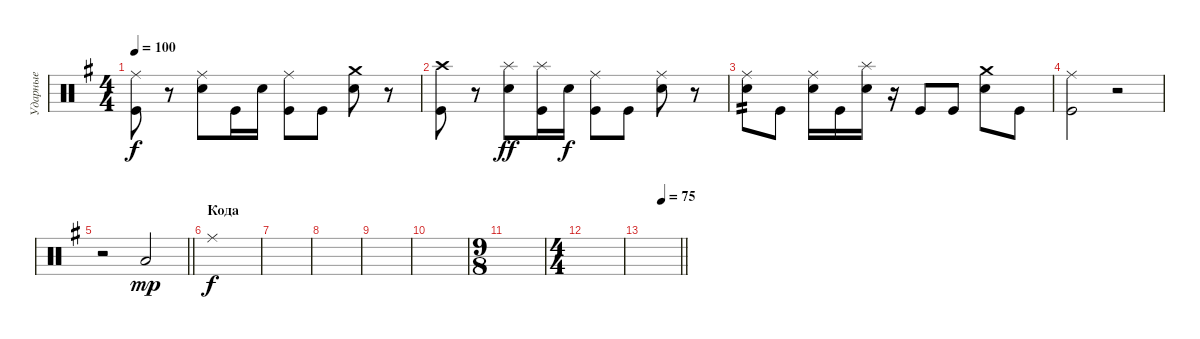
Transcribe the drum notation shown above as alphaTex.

\track ("Ударные" "Ударные") {instrument percussion}
\staff {score}
\articulation defaults
\ts (4 4)
\tempo 100
\clef neutral
\ks eminor
("Ride (middle)" "Kick (hit)").8{dy f} r.8 ("Ride (middle)" "Snare (hit) 2").8 "Kick (hit)".16 "Snare (hit) 2".16 ("Ride (middle)" "Kick (hit)").8 "Kick (hit)".8 ("Crash medium (hit)" "Snare (hit) 2").8 r.8 |
("Crash high (hit)" "Kick (hit)").8 r.8 ("Splash (hit)" "Snare (hit) 2").8{dy ff} ("Splash (hit)" "Kick (hit)").16 "Snare (hit) 2".16{dy f} ("Ride (middle)" "Kick (hit)").8 "Kick (hit)".8 ("Ride (middle)" "Snare (hit) 2").8 r.8 |
("Ride (middle)" "Snare (hit) 2").8{tp 2} "Kick (hit)".8 ("Ride (middle)" "Snare (hit) 2").16 "Kick (hit)".16 ("Splash (hit)" "Snare (hit) 2").16 r.16 "Kick (hit)".8 "Kick (hit)".8 ("Crash medium (hit)" "Snare (hit) 2").8 "Kick (hit)".8 |
("Ride (middle)" "Kick (hit)").2 r.2 |
\barLineRight lightlight
r.2 "Low Floor Tom (hit)".2{dy mp} |
\section ("" "Кода")
"Ride (middle)".1{dy f} |
|
|
|
|
\ts (9 8)
|
\ts (4 4)
|
\tempo (75 0.5)
\barLineRight lightlight
